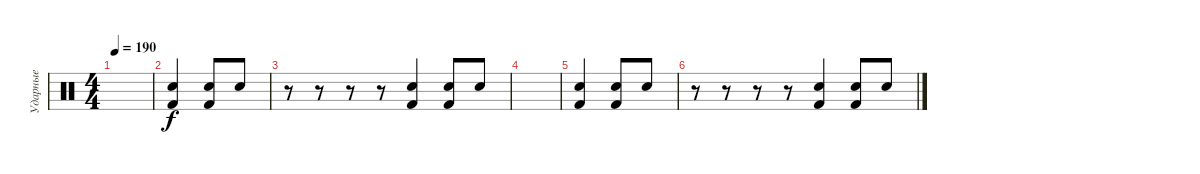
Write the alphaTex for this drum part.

\track ("Ударные" "Ударные") {instrument percussion}
\staff {score}
\articulation defaults
\ts (4 4)
\tempo 190
\clef neutral
\ks c
|
("Electric Snare (hit)" "Kick (hit) 2").4 ("Electric Snare (hit)" "Kick (hit) 2").8 "Electric Snare (hit)".8 |
r.8 r.8 r.8 r.8 ("Kick (hit) 2" "Electric Snare (hit)").4 ("Kick (hit) 2" "Electric Snare (hit)").8 "Electric Snare (hit)".8 |
|
("Kick (hit) 2" "Electric Snare (hit)").4 ("Kick (hit) 2" "Electric Snare (hit)").8 "Electric Snare (hit)".8 |
r.8 r.8 r.8 r.8 ("Electric Snare (hit)" "Kick (hit) 2").4 ("Electric Snare (hit)" "Kick (hit) 2").8 "Electric Snare (hit)".8
